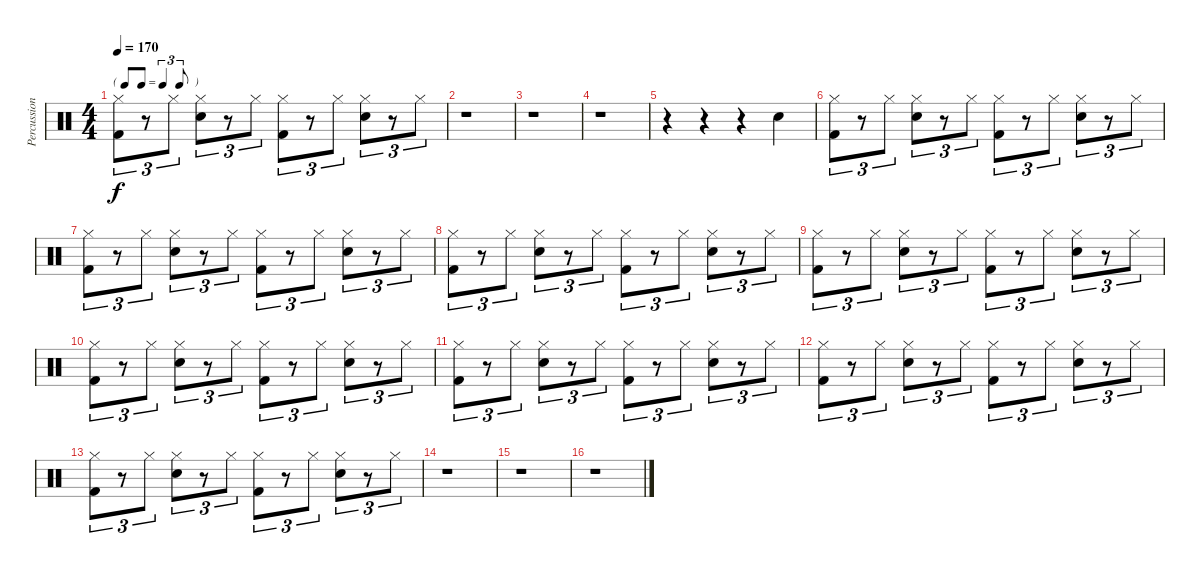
\track ("Percussion" "Percussion") {instrument percussion}
\staff {score}
\articulation defaults
\ts (4 4)
\tf triplet8th
\tempo 170
\clef neutral
\ks c
("Hi-Hat (closed)" "Kick (hit) 2").8{tu (3 2) dy f} r.8{tu (3 2)} "Hi-Hat (closed)".8{tu (3 2)} ("Hi-Hat (closed)" "Snare (hit) 2").8{tu (3 2)} r.8{tu (3 2)} "Hi-Hat (closed)".8{tu (3 2)} ("Hi-Hat (closed)" "Kick (hit) 2").8{tu (3 2)} r.8{tu (3 2)} "Hi-Hat (closed)".8{tu (3 2)} ("Hi-Hat (closed)" "Snare (hit) 2").8{tu (3 2)} r.8{tu (3 2)} "Hi-Hat (closed)".8{tu (3 2)} |
r.1 |
r.1 |
r.1 |
r.4 r.4 r.4 "Snare (hit) 2".4 |
("Hi-Hat (closed)" "Kick (hit) 2").8{tu (3 2)} r.8{tu (3 2)} "Hi-Hat (closed)".8{tu (3 2)} ("Hi-Hat (closed)" "Snare (hit) 2").8{tu (3 2)} r.8{tu (3 2)} "Hi-Hat (closed)".8{tu (3 2)} ("Hi-Hat (closed)" "Kick (hit) 2").8{tu (3 2)} r.8{tu (3 2)} "Hi-Hat (closed)".8{tu (3 2)} ("Hi-Hat (closed)" "Snare (hit) 2").8{tu (3 2)} r.8{tu (3 2)} "Hi-Hat (closed)".8{tu (3 2)} |
("Hi-Hat (closed)" "Kick (hit) 2").8{tu (3 2)} r.8{tu (3 2)} "Hi-Hat (closed)".8{tu (3 2)} ("Hi-Hat (closed)" "Snare (hit) 2").8{tu (3 2)} r.8{tu (3 2)} "Hi-Hat (closed)".8{tu (3 2)} ("Hi-Hat (closed)" "Kick (hit) 2").8{tu (3 2)} r.8{tu (3 2)} "Hi-Hat (closed)".8{tu (3 2)} ("Hi-Hat (closed)" "Snare (hit) 2").8{tu (3 2)} r.8{tu (3 2)} "Hi-Hat (closed)".8{tu (3 2)} |
("Hi-Hat (closed)" "Kick (hit) 2").8{tu (3 2)} r.8{tu (3 2)} "Hi-Hat (closed)".8{tu (3 2)} ("Hi-Hat (closed)" "Snare (hit) 2").8{tu (3 2)} r.8{tu (3 2)} "Hi-Hat (closed)".8{tu (3 2)} ("Hi-Hat (closed)" "Kick (hit) 2").8{tu (3 2)} r.8{tu (3 2)} "Hi-Hat (closed)".8{tu (3 2)} ("Hi-Hat (closed)" "Snare (hit) 2").8{tu (3 2)} r.8{tu (3 2)} "Hi-Hat (closed)".8{tu (3 2)} |
("Hi-Hat (closed)" "Kick (hit) 2").8{tu (3 2)} r.8{tu (3 2)} "Hi-Hat (closed)".8{tu (3 2)} ("Hi-Hat (closed)" "Snare (hit) 2").8{tu (3 2)} r.8{tu (3 2)} "Hi-Hat (closed)".8{tu (3 2)} ("Hi-Hat (closed)" "Kick (hit) 2").8{tu (3 2)} r.8{tu (3 2)} "Hi-Hat (closed)".8{tu (3 2)} ("Hi-Hat (closed)" "Snare (hit) 2").8{tu (3 2)} r.8{tu (3 2)} "Hi-Hat (closed)".8{tu (3 2)} |
("Hi-Hat (closed)" "Kick (hit) 2").8{tu (3 2)} r.8{tu (3 2)} "Hi-Hat (closed)".8{tu (3 2)} ("Hi-Hat (closed)" "Snare (hit) 2").8{tu (3 2)} r.8{tu (3 2)} "Hi-Hat (closed)".8{tu (3 2)} ("Hi-Hat (closed)" "Kick (hit) 2").8{tu (3 2)} r.8{tu (3 2)} "Hi-Hat (closed)".8{tu (3 2)} ("Hi-Hat (closed)" "Snare (hit) 2").8{tu (3 2)} r.8{tu (3 2)} "Hi-Hat (closed)".8{tu (3 2)} |
("Hi-Hat (closed)" "Kick (hit) 2").8{tu (3 2)} r.8{tu (3 2)} "Hi-Hat (closed)".8{tu (3 2)} ("Hi-Hat (closed)" "Snare (hit) 2").8{tu (3 2)} r.8{tu (3 2)} "Hi-Hat (closed)".8{tu (3 2)} ("Hi-Hat (closed)" "Kick (hit) 2").8{tu (3 2)} r.8{tu (3 2)} "Hi-Hat (closed)".8{tu (3 2)} ("Hi-Hat (closed)" "Snare (hit) 2").8{tu (3 2)} r.8{tu (3 2)} "Hi-Hat (closed)".8{tu (3 2)} |
("Hi-Hat (closed)" "Kick (hit) 2").8{tu (3 2)} r.8{tu (3 2)} "Hi-Hat (closed)".8{tu (3 2)} ("Hi-Hat (closed)" "Snare (hit) 2").8{tu (3 2)} r.8{tu (3 2)} "Hi-Hat (closed)".8{tu (3 2)} ("Hi-Hat (closed)" "Kick (hit) 2").8{tu (3 2)} r.8{tu (3 2)} "Hi-Hat (closed)".8{tu (3 2)} ("Hi-Hat (closed)" "Snare (hit) 2").8{tu (3 2)} r.8{tu (3 2)} "Hi-Hat (closed)".8{tu (3 2)} |
("Hi-Hat (closed)" "Kick (hit) 2").8{tu (3 2)} r.8{tu (3 2)} "Hi-Hat (closed)".8{tu (3 2)} ("Hi-Hat (closed)" "Snare (hit) 2").8{tu (3 2)} r.8{tu (3 2)} "Hi-Hat (closed)".8{tu (3 2)} ("Hi-Hat (closed)" "Kick (hit) 2").8{tu (3 2)} r.8{tu (3 2)} "Hi-Hat (closed)".8{tu (3 2)} ("Hi-Hat (closed)" "Snare (hit) 2").8{tu (3 2)} r.8{tu (3 2)} "Hi-Hat (closed)".8{tu (3 2)} |
r.1 |
r.1 |
r.1
